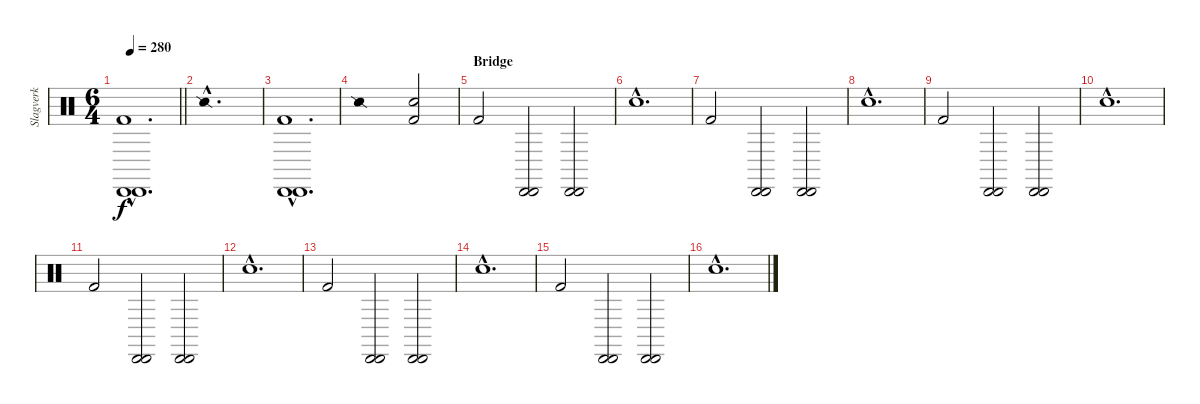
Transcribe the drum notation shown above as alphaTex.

\track ("Slagverk" "Slagverk") {instrument percussion}
\staff {score}
\articulation defaults
\ts (6 4)
\tempo 280
\clef neutral
\barLineRight lightlight
\ks c
("Cabasa (hit)"{hac} "Cabasa (hit)"{hac} "Kick (hit) 2"{hac}).1{d dy f} |
"Snare (side stick) 2"{hac}.1{d} |
("Cabasa (hit)"{hac} "Cabasa (hit)"{hac} "Kick (hit) 2"{hac}).1{d} |
"Snare (side stick) 2".1 ("Electric Snare (hit)" "Kick (hit) 2").2 |
\section ("" "Bridge")
"Kick (hit) 2".2 ("Cabasa (hit)" "Cabasa (hit)").2 ("Cabasa (hit)" "Cabasa (hit)").2 |
"Snare (hit) 2"{hac}.1{d} |
"Kick (hit) 2".2 ("Cabasa (hit)" "Cabasa (hit)").2 ("Cabasa (hit)" "Cabasa (hit)").2 |
"Snare (hit) 2"{hac}.1{d} |
"Kick (hit) 2".2 ("Cabasa (hit)" "Cabasa (hit)").2 ("Cabasa (hit)" "Cabasa (hit)").2 |
"Snare (hit) 2"{hac}.1{d} |
"Kick (hit) 2".2 ("Cabasa (hit)" "Cabasa (hit)").2 ("Cabasa (hit)" "Cabasa (hit)").2 |
"Snare (hit) 2"{hac}.1{d} |
"Kick (hit) 2".2 ("Cabasa (hit)" "Cabasa (hit)").2 ("Cabasa (hit)" "Cabasa (hit)").2 |
"Snare (hit) 2"{hac}.1{d} |
"Kick (hit) 2".2 ("Cabasa (hit)" "Cabasa (hit)").2 ("Cabasa (hit)" "Cabasa (hit)").2 |
"Snare (hit) 2"{hac}.1{d}
